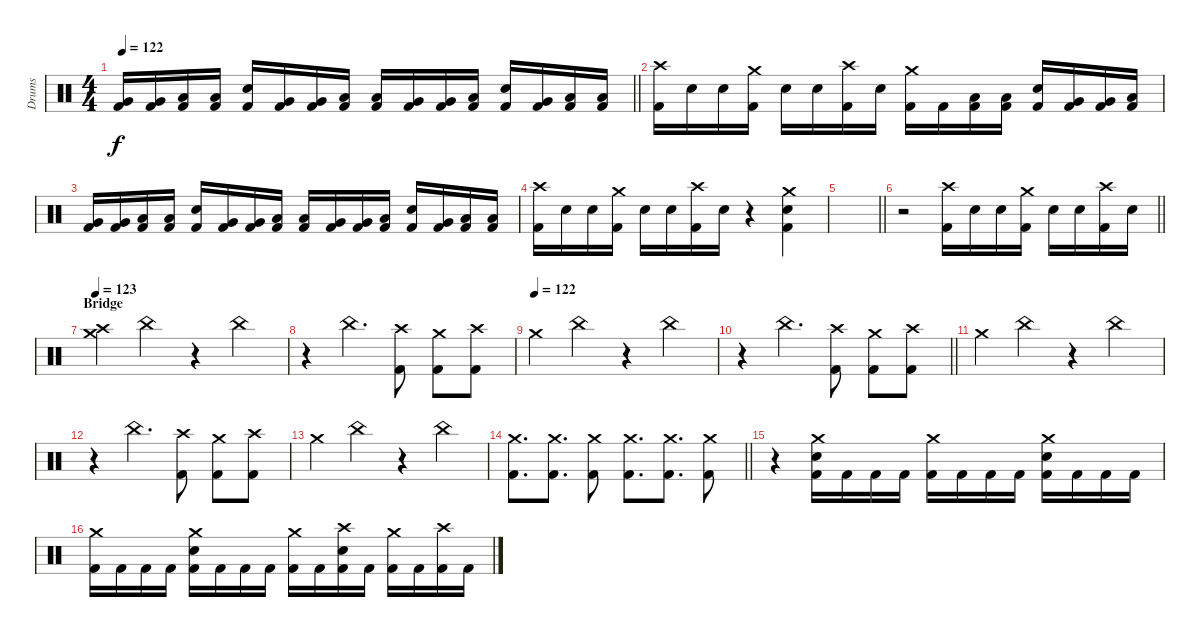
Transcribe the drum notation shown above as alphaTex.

\track ("Drums" "Drums") {instrument percussion}
\staff {score}
\articulation defaults
\ts (4 4)
\tempo 122
\clef neutral
\barLineRight lightlight
\ks c
("Kick (hit) 2" "Very Low Tom (hit)").16{dy f} ("Kick (hit) 2" "Very Low Tom (hit)").16 ("Kick (hit) 2" "Low Floor Tom (hit)").16 ("Kick (hit) 2" "Low Floor Tom (hit)").16 ("Kick (hit) 2" "Snare (hit) 2").16 ("Kick (hit) 2" "Very Low Tom (hit)").16 ("Kick (hit) 2" "Very Low Tom (hit)").16 ("Kick (hit) 2" "Low Floor Tom (hit)").16 ("Kick (hit) 2" "Low Floor Tom (hit)").16 ("Kick (hit) 2" "Very Low Tom (hit)").16 ("Kick (hit) 2" "Very Low Tom (hit)").16 ("Kick (hit) 2" "Low Floor Tom (hit)").16 ("Kick (hit) 2" "Snare (hit) 2").16 ("Kick (hit) 2" "Very Low Tom (hit)").16 ("Kick (hit) 2" "Low Floor Tom (hit)").16 ("Kick (hit) 2" "Low Floor Tom (hit)").16 |
\section ("" "")
("Kick (hit) 2" "Crash high (hit)").16 "Snare (hit) 2".16 "Snare (hit) 2".16 ("Kick (hit) 2" "Crash medium (hit)").16 "Snare (hit) 2".16 "Snare (hit) 2".16 ("Kick (hit) 2" "Crash high (hit)").16 "Snare (hit) 2".16 ("Kick (hit) 2" "Crash medium (hit)").16 "Kick (hit) 2".16 ("Kick (hit) 2" "Low Floor Tom (hit)").16 ("Kick (hit) 2" "Low Floor Tom (hit)").16 ("Kick (hit) 2" "Snare (hit) 2").16 ("Kick (hit) 2" "Very Low Tom (hit)").16 ("Kick (hit) 2" "Very Low Tom (hit)").16 ("Kick (hit) 2" "Low Floor Tom (hit)").16 |
("Kick (hit) 2" "Very Low Tom (hit)").16 ("Kick (hit) 2" "Very Low Tom (hit)").16 ("Kick (hit) 2" "Low Floor Tom (hit)").16 ("Kick (hit) 2" "Low Floor Tom (hit)").16 ("Kick (hit) 2" "Snare (hit) 2").16 ("Kick (hit) 2" "Very Low Tom (hit)").16 ("Kick (hit) 2" "Very Low Tom (hit)").16 ("Kick (hit) 2" "Low Floor Tom (hit)").16 ("Kick (hit) 2" "Low Floor Tom (hit)").16 ("Kick (hit) 2" "Very Low Tom (hit)").16 ("Kick (hit) 2" "Very Low Tom (hit)").16 ("Kick (hit) 2" "Low Floor Tom (hit)").16 ("Kick (hit) 2" "Snare (hit) 2").16 ("Kick (hit) 2" "Very Low Tom (hit)").16 ("Kick (hit) 2" "Low Floor Tom (hit)").16 ("Kick (hit) 2" "Low Floor Tom (hit)").16 |
("Kick (hit) 2" "Crash high (hit)").16 "Snare (hit) 2".16 "Snare (hit) 2".16 ("Kick (hit) 2" "Crash medium (hit)").16 "Snare (hit) 2".16 "Snare (hit) 2".16 ("Kick (hit) 2" "Crash high (hit)").16 "Snare (hit) 2".16 r.4 ("Kick (hit) 2" "Snare (hit) 2" "Crash medium (hit)").4 |
\barLineRight lightlight
|
\section ("" "")
\barLineRight lightlight
r.2 ("Kick (hit) 2" "Crash high (hit)").16 "Snare (hit) 2".16 "Snare (hit) 2".16 ("Kick (hit) 2" "Crash medium (hit)").16 "Snare (hit) 2".16 "Snare (hit) 2".16 ("Kick (hit) 2" "Crash high (hit)").16 "Snare (hit) 2".16 |
\section ("" "Bridge")
\tempo 123
("Crash medium (hit)" "Crash high (hit)").4 "China (hit)".4 r.4 "China (hit)".4 |
r.4 "China (hit)".4{d} ("Kick (hit) 2" "Crash high (hit)").8 ("Kick (hit) 2" "Crash medium (hit)").8 ("Kick (hit) 2" "Crash high (hit)").8 |
\tempo (122)
"Crash medium (hit)".4 "China (hit)".4 r.4 "China (hit)".4 |
\barLineRight lightlight
r.4 "China (hit)".4{d} ("Kick (hit) 2" "Crash high (hit)").8 ("Kick (hit) 2" "Crash medium (hit)").8 ("Kick (hit) 2" "Crash high (hit)").8 |
\section ("" "")
"Crash medium (hit)".4 "China (hit)".4 r.4 "China (hit)".4 |
r.4 "China (hit)".4{d} ("Kick (hit) 2" "Crash high (hit)").8 ("Kick (hit) 2" "Crash medium (hit)").8 ("Kick (hit) 2" "Crash high (hit)").8 |
"Crash medium (hit)".4 "China (hit)".4 r.4 "China (hit)".4 |
\barLineRight lightlight
("Kick (hit) 2" "Crash medium (hit)").8{d} ("Kick (hit) 2" "Crash medium (hit)").8{d} ("Kick (hit) 2" "Crash medium (hit)").8 ("Kick (hit) 2" "Crash medium (hit)").8{d} ("Kick (hit) 2" "Crash medium (hit)").8{d} ("Kick (hit) 2" "Crash medium (hit)").8 |
\section ("" "")
r.4 ("Kick (hit) 2" "Snare (hit) 2" "Crash medium (hit)").16 "Kick (hit) 2".16 "Kick (hit) 2".16 "Kick (hit) 2".16 ("Kick (hit) 2" "Crash medium (hit)").16 "Kick (hit) 2".16 "Kick (hit) 2".16 "Kick (hit) 2".16 ("Kick (hit) 2" "Snare (hit) 2" "Crash medium (hit)").16 "Kick (hit) 2".16 "Kick (hit) 2".16 "Kick (hit) 2".16 |
("Kick (hit) 2" "Crash medium (hit)").16 "Kick (hit) 2".16 "Kick (hit) 2".16 "Kick (hit) 2".16 ("Kick (hit) 2" "Snare (hit) 2" "Crash medium (hit)").16 "Kick (hit) 2".16 "Kick (hit) 2".16 "Kick (hit) 2".16 ("Kick (hit) 2" "Crash medium (hit)").16 "Kick (hit) 2".16 ("Kick (hit) 2" "Snare (hit) 2" "Crash high (hit)").16 "Kick (hit) 2".16 ("Kick (hit) 2" "Crash medium (hit)").16 "Kick (hit) 2".16 ("Kick (hit) 2" "Crash high (hit)").16 "Kick (hit) 2".16
